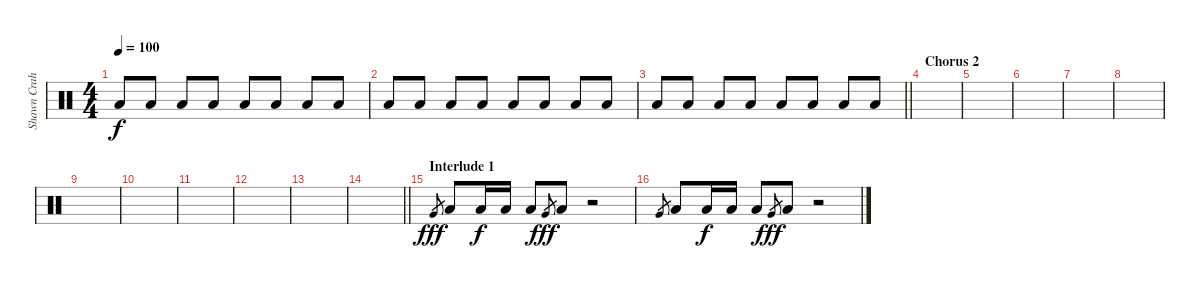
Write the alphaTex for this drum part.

\track ("Shawn Crahan" "Shawn Crah") {instrument percussion}
\staff {score}
\articulation defaults
\ts (4 4)
\tempo 100
\clef neutral
\ks c "Low Floor Tom (hit)".8{dy f} "Low Tom (hit)".8 "Low Floor Tom (hit)".8 "Low Tom (hit)".8 "Low Floor Tom (hit)".8 "Low Tom (hit)".8 "Low Floor Tom (hit)".8 "Low Tom (hit)".8
|
"Low Floor Tom (hit)".8 "Low Tom (hit)".8 "Low Floor Tom (hit)".8 "Low Tom (hit)".8 "Low Floor Tom (hit)".8 "Low Tom (hit)".8 "Low Floor Tom (hit)".8 "Low Tom (hit)".8 |
\barLineRight lightlight "Low Floor Tom (hit)".8 "Low Tom (hit)".8 "Low Floor Tom (hit)".8 "Low Tom (hit)".8 "Low Floor Tom (hit)".8 "Low Tom (hit)".8 "Low Floor Tom (hit)".8 "Low Tom (hit)".8
|
\section ("" "Chorus 2")
|
|
|
|
|
|
|
|
|
|
\barLineRight lightlight
|
\section ("" "Interlude 1")
"Very Low Tom (hit)".8{gr dy fff} "Low Floor Tom (hit)".8 "Low Floor Tom (hit)".16{dy f} "Low Floor Tom (hit)".16 "Low Floor Tom (hit)".8 "Very Low Tom (hit)".8{gr dy fff} "Low Floor Tom (hit)".8 r.2 |
"Very Low Tom (hit)".8{gr} "Low Floor Tom (hit)".8 "Low Floor Tom (hit)".16{dy f} "Low Floor Tom (hit)".16 "Low Floor Tom (hit)".8 "Very Low Tom (hit)".8{gr dy fff} "Low Floor Tom (hit)".8 r.2
